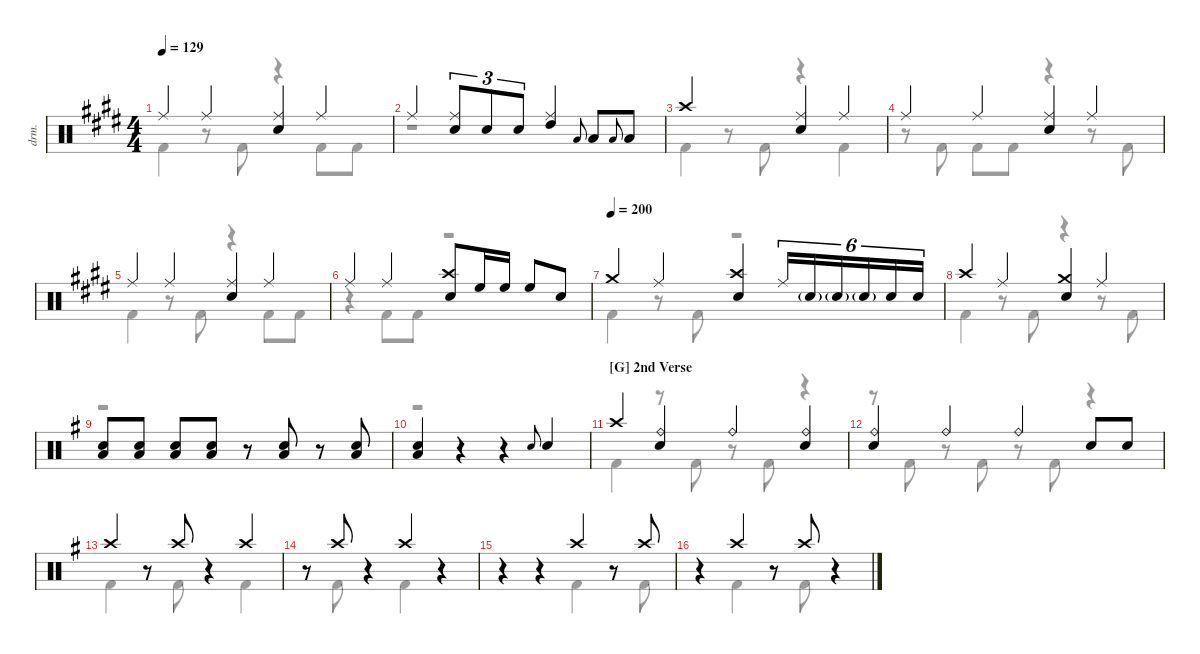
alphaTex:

\defaultSystemsLayout 4
\hideDynamics
\bracketExtendMode nobrackets
\track ("Drums" "drm.") {instrument percussion}
\staff {score}
\articulation defaults
\voice
\ts (4 4)
\tempo 129
\clef neutral
\ks e "Ride (middle)"{acc forcenatural}.4{dy mf} "Ride (middle)"{acc forcenatural}.4
("Ride (middle)"{acc forcenatural} "Snare (hit) 2"{acc forcenatural}).4 "Ride (middle)"{acc forcenatural}.4 |
"Ride (middle)"{acc forcenatural}.4 ("Ride (middle)"{acc forcenatural} "Snare (hit) 2"{acc forcenatural}).8{tu (3 2)} "Snare (hit) 2"{acc forcenatural}.8{tu (3 2)} "Snare (hit) 2"{acc forcenatural}.8{tu (3 2)} ("High Tom (hit)"{acc forcenatural} "Ride (middle)"{acc forcenatural}).4 "Low Tom (hit)"{acc forcenatural}.8{gr onbeat} "Low Tom (hit)"{acc forcenatural}.8 "Low Tom (hit)"{acc forcenatural}.8{gr onbeat} "Low Tom (hit)"{acc forcenatural}.8 |
"Crash high (hit)"{acc forcenatural}.2 ("Ride (middle)"{acc forcenatural} "Snare (hit) 2"{acc forcenatural}).4 "Ride (middle)"{acc forcenatural}.4 |
"Ride (middle)"{acc forcenatural}.4 "Ride (middle)"{acc forcenatural}.4 ("Ride (middle)"{acc forcenatural} "Snare (hit) 2"{acc forcenatural}).4 "Ride (middle)"{acc forcenatural}.4 |
"Ride (middle)"{acc forcenatural}.4 "Ride (middle)"{acc forcenatural}.4 ("Ride (middle)"{acc forcenatural} "Snare (hit) 2"{acc forcenatural}).4 "Ride (middle)"{acc forcenatural}.4 |
"Ride (middle)"{acc forcenatural}.4 "Ride (middle)"{acc forcenatural}.4 ("Crash high (hit)"{acc forcenatural} "Snare (hit) 2"{acc forcenatural}).8 "High Floor Tom (hit)"{acc forcenatural}.16 "High Floor Tom (hit)"{acc forcenatural}.16 "High Floor Tom (hit)"{acc forcenatural}.8 "Snare (hit) 2"{acc forcenatural}.8 |
\tempo (200)
"Crash medium (hit)"{acc forcenatural}.4 "Ride (middle)"{acc forcenatural}.4 ("Crash high (hit)"{acc forcenatural} "Snare (hit) 2"{acc forcenatural}).4 "Ride (middle)"{acc forcenatural}.16{tu (6 4)} "Snare (hit) 2"{g acc forcenatural}.16{tu (6 4)} "Snare (hit) 2"{g acc forcenatural}.16{tu (6 4)} "Snare (hit) 2"{g acc forcenatural}.16{tu (6 4)} "Snare (hit) 2"{acc forcenatural}.16{tu (6 4)} "Snare (hit) 2"{acc forcenatural}.16{tu (6 4)} |
"Crash high (hit)"{acc forcenatural}.4 "Ride (middle)"{acc forcenatural}.4 ("Crash medium (hit)"{acc forcenatural} "Snare (hit) 2"{acc forcenatural}).4 "Ride (middle)"{acc forcenatural}.4 |
\ks g
("Low Tom (hit)"{acc forcenatural} "Snare (hit) 2"{acc forcenatural}).8 ("Low Tom (hit)"{acc forcenatural} "Snare (hit) 2"{acc forcenatural}).8 ("Snare (hit) 2"{acc forcenatural} "Low Tom (hit)"{acc forcenatural}).8 ("Snare (hit) 2"{acc forcenatural} "Low Tom (hit)"{acc forcenatural}).8 r.8 ("Low Tom (hit)"{acc forcenatural} "Snare (hit) 2"{acc forcenatural}).8 r.8 ("Snare (hit) 2"{acc forcenatural} "Low Tom (hit)"{acc forcenatural}).8 |
("Low Tom (hit)"{acc forcenatural} "Snare (hit) 2"{acc forcenatural}).4 r.4 r.4 "Snare (hit) 2"{acc forcenatural}.8{gr onbeat} "Snare (hit) 2"{acc forcenatural}.4 |
\section ("G" "2nd Verse")
"Crash high (hit)"{acc forcenatural}.4 ("Ride (bell)"{acc forcenatural} "Snare (hit) 2"{acc forcenatural}).4 "Ride (bell)"{acc forcenatural}.4 ("Ride (bell)"{acc forcenatural} "Snare (hit) 2"{acc forcenatural}).4 |
("Ride (bell)"{acc forcenatural} "Snare (hit) 2"{acc forcenatural}).4 "Ride (bell)"{acc forcenatural}.4 "Ride (bell)"{acc forcenatural}.4 "Snare (hit) 2"{acc forcenatural}.8 "Snare (hit) 2"{acc forcenatural}.8 |
"Crash high (hit)"{acc forcenatural}.4 r.8 "Crash high (hit)"{acc forcenatural}.8 r.4 "Crash high (hit)"{acc forcenatural}.4 |
r.8 "Crash high (hit)"{acc forcenatural}.8 r.4 "Crash high (hit)"{acc forcenatural}.4 r.4 |
r.4 r.4 "Crash high (hit)"{acc forcenatural}.4 r.8 "Crash high (hit)"{acc forcenatural}.8 |
r.4 "Crash high (hit)"{acc forcenatural}.4 r.8 "Crash high (hit)"{acc forcenatural}.8 r.4
\voice
\clef neutral
\ottava regular
\simile none
\ks e "Kick (hit) 2"{acc forcenatural}.4{dy mf}
r.8 "Kick (hit) 2"{acc forcenatural}.8 r.4 "Kick (hit) 2"{acc forcenatural}.8 "Kick (hit) 2"{acc forcenatural}.8 |
r.1 |
"Kick (hit) 2"{acc forcenatural}.4 r.8 "Kick (hit) 2"{acc forcenatural}.8 r.4 "Kick (hit) 2"{acc forcenatural}.4 |
r.8 "Kick (hit) 2"{acc forcenatural}.8 "Kick (hit) 2"{acc forcenatural}.8 "Kick (hit) 2"{acc forcenatural}.8 r.4 r.8 "Kick (hit) 2"{acc forcenatural}.8 |
"Kick (hit) 2"{acc forcenatural}.4 r.8 "Kick (hit) 2"{acc forcenatural}.8 r.4 "Kick (hit) 2"{acc forcenatural}.8 "Kick (hit) 2"{acc forcenatural}.8 |
r.4 "Kick (hit) 2"{acc forcenatural}.8 "Kick (hit) 2"{acc forcenatural}.8 r.2 |
"Kick (hit) 2"{acc forcenatural}.4 r.8 "Kick (hit) 2"{acc forcenatural}.8 r.2 |
"Kick (hit) 2"{acc forcenatural}.4 r.8 "Kick (hit) 2"{acc forcenatural}.8 r.4 r.8 "Kick (hit) 2"{acc forcenatural}.8 |
\ks g
r.1 |
r.1 |
"Kick (hit) 2"{acc forcenatural}.4 r.8 "Kick (hit) 2"{acc forcenatural}.8 r.8 "Kick (hit) 2"{acc forcenatural}.8 r.4 |
r.8 "Kick (hit) 2"{acc forcenatural}.8 r.8 "Kick (hit) 2"{acc forcenatural}.8 r.8 "Kick (hit) 2"{acc forcenatural}.8 r.4 |
"Kick (hit) 2"{acc forcenatural}.4 r.8 "Kick (hit) 2"{acc forcenatural}.8 r.4 "Kick (hit) 2"{acc forcenatural}.4 |
r.8 "Kick (hit) 2"{acc forcenatural}.8 r.4 "Kick (hit) 2"{acc forcenatural}.4 r.4 |
r.4 r.4 "Kick (hit) 2"{acc forcenatural}.4 r.8 "Kick (hit) 2"{acc forcenatural}.8 |
r.4 "Kick (hit) 2"{acc forcenatural}.4 r.8 "Kick (hit) 2"{acc forcenatural}.8 r.4
